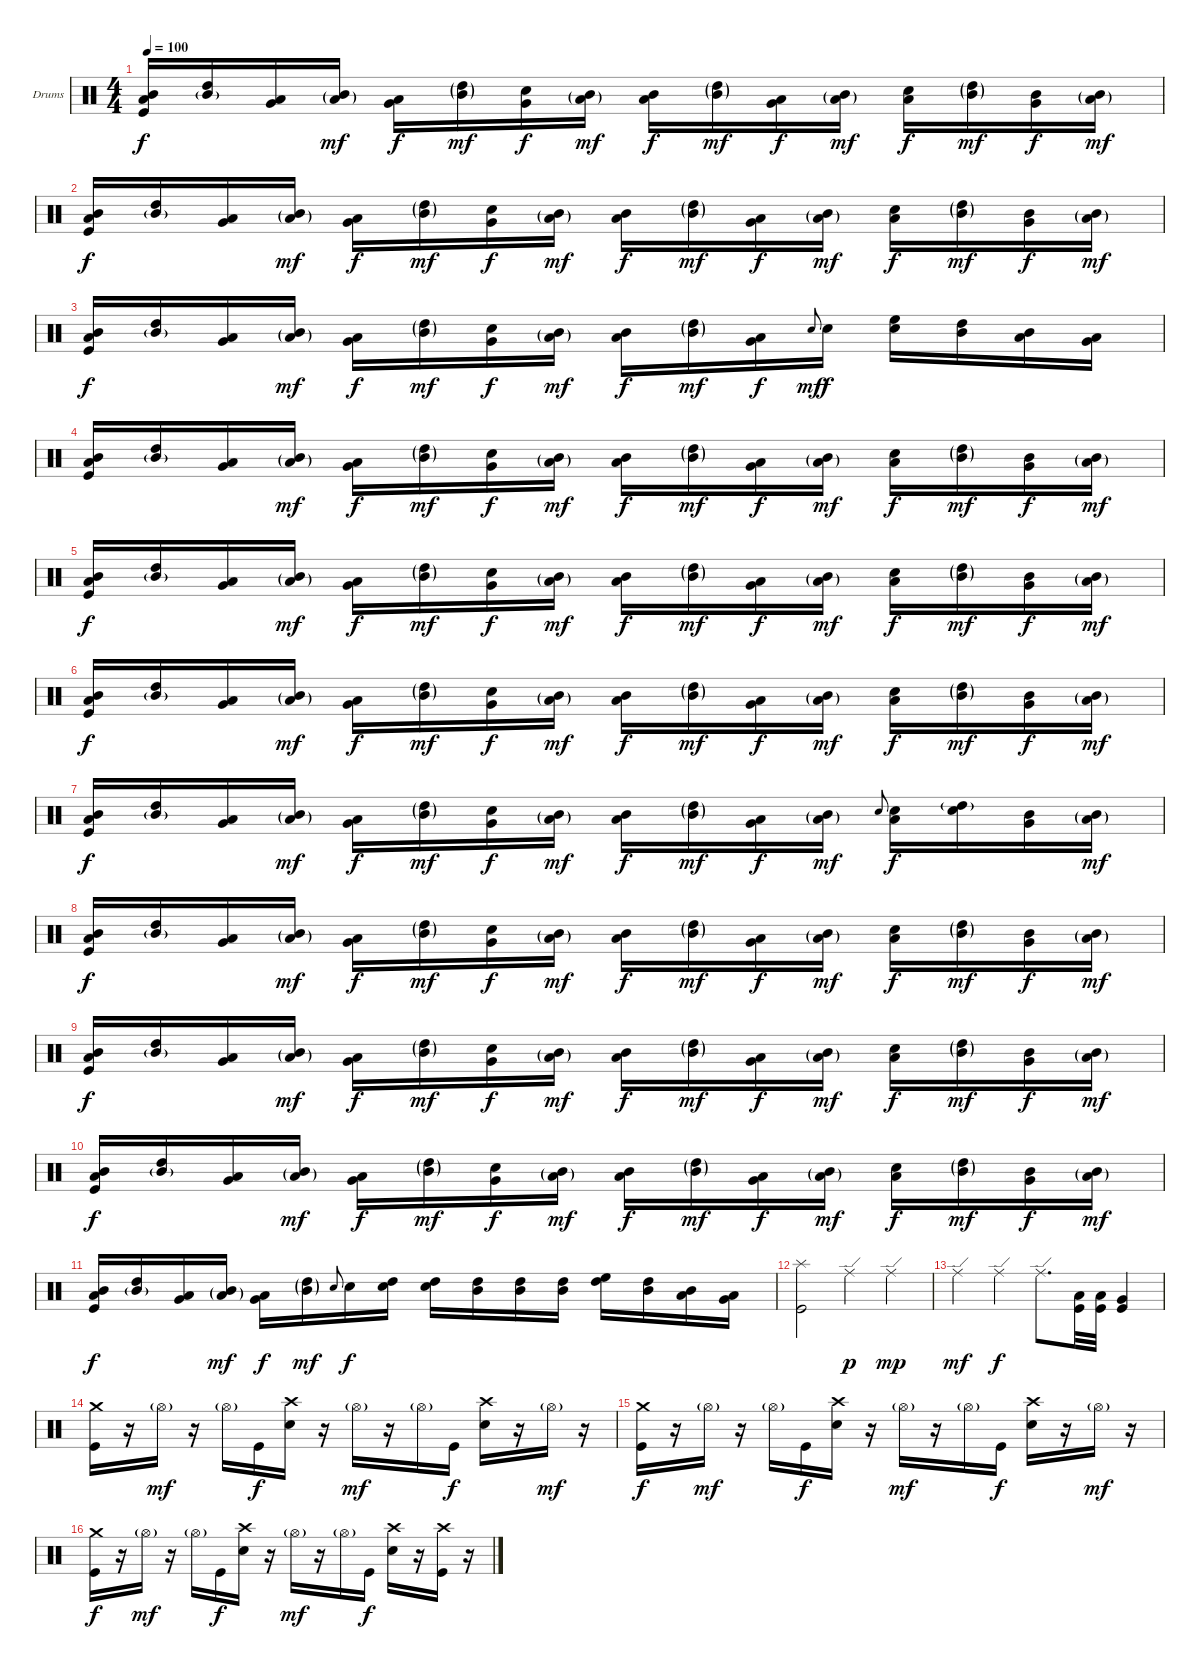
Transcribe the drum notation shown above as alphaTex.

\bracketExtendMode groupsimilarinstruments
\firstSystemTrackNameOrientation horizontal
\otherSystemsTrackNameOrientation horizontal
\track ("Drumkit (Christoph)" "Drums") {instrument percussion}
\staff {score}
\articulation defaults
\ts (4 4)
\tempo 100
\clef neutral
\ks c
("Low Tom (hit)" "Mid Tom (hit)" "Kick (hit)").16{dy f} ("Mid Tom (hit)"{g} "High Tom (hit)").16 ("Very Low Tom (hit)" "Low Tom (hit)").16 ("Low Tom (hit)"{g} "Mid Tom (hit)"{g}).16{dy mf} ("Low Tom (hit)" "Very Low Tom (hit)").16{dy f} ("Mid Tom (hit)"{g} "High Tom (hit)"{g}).16{dy mf} ("Very Low Tom (hit)" "Snare (hit) 2").16{dy f} ("Mid Tom (hit)"{g} "Low Tom (hit)"{g}).16{dy mf} ("Low Tom (hit)" "Mid Tom (hit)").16{dy f} ("High Tom (hit)"{g} "Mid Tom (hit)"{g}).16{dy mf} ("Very Low Tom (hit)" "Low Tom (hit)").16{dy f} ("Mid Tom (hit)"{g} "Low Tom (hit)"{g}).16{dy mf} ("Low Tom (hit)" "Snare (hit) 2").16{dy f} ("High Tom (hit)"{g} "Mid Tom (hit)"{g}).16{dy mf} ("Very Low Tom (hit)" "Mid Tom (hit)").16{dy f} ("Mid Tom (hit)"{g} "Low Tom (hit)"{g}).16{dy mf} |
("Low Tom (hit)" "Mid Tom (hit)" "Kick (hit)").16{dy f} ("Mid Tom (hit)"{g} "High Tom (hit)").16 ("Very Low Tom (hit)" "Low Tom (hit)").16 ("Low Tom (hit)"{g} "Mid Tom (hit)"{g}).16{dy mf} ("Low Tom (hit)" "Very Low Tom (hit)").16{dy f} ("Mid Tom (hit)"{g} "High Tom (hit)"{g}).16{dy mf} ("Very Low Tom (hit)" "Snare (hit) 2").16{dy f} ("Mid Tom (hit)"{g} "Low Tom (hit)"{g}).16{dy mf} ("Low Tom (hit)" "Mid Tom (hit)").16{dy f} ("High Tom (hit)"{g} "Mid Tom (hit)"{g}).16{dy mf} ("Very Low Tom (hit)" "Low Tom (hit)").16{dy f} ("Mid Tom (hit)"{g} "Low Tom (hit)"{g}).16{dy mf} ("Low Tom (hit)" "Snare (hit) 2").16{dy f} ("High Tom (hit)"{g} "Mid Tom (hit)"{g}).16{dy mf} ("Very Low Tom (hit)" "Mid Tom (hit)").16{dy f} ("Mid Tom (hit)"{g} "Low Tom (hit)"{g}).16{dy mf} |
("Low Tom (hit)" "Mid Tom (hit)" "Kick (hit)").16{dy f} ("Mid Tom (hit)"{g} "High Tom (hit)").16 ("Very Low Tom (hit)" "Low Tom (hit)").16 ("Low Tom (hit)"{g} "Mid Tom (hit)"{g}).16{dy mf} ("Low Tom (hit)" "Very Low Tom (hit)").16{dy f} ("Mid Tom (hit)"{g} "High Tom (hit)"{g}).16{dy mf} ("Very Low Tom (hit)" "Snare (hit) 2").16{dy f} ("Mid Tom (hit)"{g} "Low Tom (hit)"{g}).16{dy mf} ("Low Tom (hit)" "Mid Tom (hit)").16{dy f} ("High Tom (hit)"{g} "Mid Tom (hit)"{g}).16{dy mf} ("Very Low Tom (hit)" "Low Tom (hit)").16{dy f} "Snare (hit) 2".8{gr onbeat dy mf} "Snare (hit) 2".16{dy f} ("High Floor Tom (hit)" "Snare (hit) 2").16 ("High Tom (hit)" "Mid Tom (hit)").16 ("Mid Tom (hit)" "Low Tom (hit)").16 ("Low Tom (hit)" "Very Low Tom (hit)").16 |
("Low Tom (hit)" "Mid Tom (hit)" "Kick (hit)").16 ("Mid Tom (hit)"{g} "High Tom (hit)").16 ("Very Low Tom (hit)" "Low Tom (hit)").16 ("Low Tom (hit)"{g} "Mid Tom (hit)"{g}).16{dy mf} ("Low Tom (hit)" "Very Low Tom (hit)").16{dy f} ("Mid Tom (hit)"{g} "High Tom (hit)"{g}).16{dy mf} ("Very Low Tom (hit)" "Snare (hit) 2").16{dy f} ("Mid Tom (hit)"{g} "Low Tom (hit)"{g}).16{dy mf} ("Low Tom (hit)" "Mid Tom (hit)").16{dy f} ("High Tom (hit)"{g} "Mid Tom (hit)"{g}).16{dy mf} ("Very Low Tom (hit)" "Low Tom (hit)").16{dy f} ("Mid Tom (hit)"{g} "Low Tom (hit)"{g}).16{dy mf} ("Low Tom (hit)" "Snare (hit) 2").16{dy f} ("High Tom (hit)"{g} "Mid Tom (hit)"{g}).16{dy mf} ("Very Low Tom (hit)" "Mid Tom (hit)").16{dy f} ("Mid Tom (hit)"{g} "Low Tom (hit)"{g}).16{dy mf} |
("Low Tom (hit)" "Mid Tom (hit)" "Kick (hit)").16{dy f} ("Mid Tom (hit)"{g} "High Tom (hit)").16 ("Very Low Tom (hit)" "Low Tom (hit)").16 ("Low Tom (hit)"{g} "Mid Tom (hit)"{g}).16{dy mf} ("Low Tom (hit)" "Very Low Tom (hit)").16{dy f} ("Mid Tom (hit)"{g} "High Tom (hit)"{g}).16{dy mf} ("Very Low Tom (hit)" "Snare (hit) 2").16{dy f} ("Mid Tom (hit)"{g} "Low Tom (hit)"{g}).16{dy mf} ("Low Tom (hit)" "Mid Tom (hit)").16{dy f} ("High Tom (hit)"{g} "Mid Tom (hit)"{g}).16{dy mf} ("Very Low Tom (hit)" "Low Tom (hit)").16{dy f} ("Mid Tom (hit)"{g} "Low Tom (hit)"{g}).16{dy mf} ("Low Tom (hit)" "Snare (hit) 2").16{dy f} ("High Tom (hit)"{g} "Mid Tom (hit)"{g}).16{dy mf} ("Very Low Tom (hit)" "Mid Tom (hit)").16{dy f} ("Mid Tom (hit)"{g} "Low Tom (hit)"{g}).16{dy mf} |
("Low Tom (hit)" "Mid Tom (hit)" "Kick (hit)").16{dy f} ("Mid Tom (hit)"{g} "High Tom (hit)").16 ("Very Low Tom (hit)" "Low Tom (hit)").16 ("Low Tom (hit)"{g} "Mid Tom (hit)"{g}).16{dy mf} ("Low Tom (hit)" "Very Low Tom (hit)").16{dy f} ("Mid Tom (hit)"{g} "High Tom (hit)"{g}).16{dy mf} ("Very Low Tom (hit)" "Snare (hit) 2").16{dy f} ("Mid Tom (hit)"{g} "Low Tom (hit)"{g}).16{dy mf} ("Low Tom (hit)" "Mid Tom (hit)").16{dy f} ("High Tom (hit)"{g} "Mid Tom (hit)"{g}).16{dy mf} ("Very Low Tom (hit)" "Low Tom (hit)").16{dy f} ("Mid Tom (hit)"{g} "Low Tom (hit)"{g}).16{dy mf} ("Low Tom (hit)" "Snare (hit) 2").16{dy f} ("High Tom (hit)"{g} "Mid Tom (hit)"{g}).16{dy mf} ("Very Low Tom (hit)" "Mid Tom (hit)").16{dy f} ("Mid Tom (hit)"{g} "Low Tom (hit)"{g}).16{dy mf} |
("Low Tom (hit)" "Mid Tom (hit)" "Kick (hit)").16{dy f} ("Mid Tom (hit)"{g} "High Tom (hit)").16 ("Very Low Tom (hit)" "Low Tom (hit)").16 ("Low Tom (hit)"{g} "Mid Tom (hit)"{g}).16{dy mf} ("Low Tom (hit)" "Very Low Tom (hit)").16{dy f} ("Mid Tom (hit)"{g} "High Tom (hit)"{g}).16{dy mf} ("Very Low Tom (hit)" "Snare (hit) 2").16{dy f} ("Mid Tom (hit)"{g} "Low Tom (hit)"{g}).16{dy mf} ("Low Tom (hit)" "Mid Tom (hit)").16{dy f} ("High Tom (hit)"{g} "Mid Tom (hit)"{g}).16{dy mf} ("Very Low Tom (hit)" "Low Tom (hit)").16{dy f} ("Mid Tom (hit)"{g} "Low Tom (hit)"{g}).16{dy mf} "Snare (hit) 2".8{gr onbeat} ("Low Tom (hit)" "Snare (hit) 2").16{dy f} ("High Tom (hit)"{g} "Snare (hit) 2").16 ("Very Low Tom (hit)" "Mid Tom (hit)").16 ("Mid Tom (hit)"{g} "Low Tom (hit)"{g}).16{dy mf} |
("Low Tom (hit)" "Mid Tom (hit)" "Kick (hit)").16{dy f} ("Mid Tom (hit)"{g} "High Tom (hit)").16 ("Very Low Tom (hit)" "Low Tom (hit)").16 ("Low Tom (hit)"{g} "Mid Tom (hit)"{g}).16{dy mf} ("Low Tom (hit)" "Very Low Tom (hit)").16{dy f} ("Mid Tom (hit)"{g} "High Tom (hit)"{g}).16{dy mf} ("Very Low Tom (hit)" "Snare (hit) 2").16{dy f} ("Mid Tom (hit)"{g} "Low Tom (hit)"{g}).16{dy mf} ("Low Tom (hit)" "Mid Tom (hit)").16{dy f} ("High Tom (hit)"{g} "Mid Tom (hit)"{g}).16{dy mf} ("Very Low Tom (hit)" "Low Tom (hit)").16{dy f} ("Mid Tom (hit)"{g} "Low Tom (hit)"{g}).16{dy mf} ("Low Tom (hit)" "Snare (hit) 2").16{dy f} ("High Tom (hit)"{g} "Mid Tom (hit)"{g}).16{dy mf} ("Very Low Tom (hit)" "Mid Tom (hit)").16{dy f} ("Mid Tom (hit)"{g} "Low Tom (hit)"{g}).16{dy mf} |
("Low Tom (hit)" "Mid Tom (hit)" "Kick (hit)").16{dy f} ("Mid Tom (hit)"{g} "High Tom (hit)").16 ("Very Low Tom (hit)" "Low Tom (hit)").16 ("Low Tom (hit)"{g} "Mid Tom (hit)"{g}).16{dy mf} ("Low Tom (hit)" "Very Low Tom (hit)").16{dy f} ("Mid Tom (hit)"{g} "High Tom (hit)"{g}).16{dy mf} ("Very Low Tom (hit)" "Snare (hit) 2").16{dy f} ("Mid Tom (hit)"{g} "Low Tom (hit)"{g}).16{dy mf} ("Low Tom (hit)" "Mid Tom (hit)").16{dy f} ("High Tom (hit)"{g} "Mid Tom (hit)"{g}).16{dy mf} ("Very Low Tom (hit)" "Low Tom (hit)").16{dy f} ("Mid Tom (hit)"{g} "Low Tom (hit)"{g}).16{dy mf} ("Low Tom (hit)" "Snare (hit) 2").16{dy f} ("High Tom (hit)"{g} "Mid Tom (hit)"{g}).16{dy mf} ("Very Low Tom (hit)" "Mid Tom (hit)").16{dy f} ("Mid Tom (hit)"{g} "Low Tom (hit)"{g}).16{dy mf} |
("Low Tom (hit)" "Mid Tom (hit)" "Kick (hit)").16{dy f} ("Mid Tom (hit)"{g} "High Tom (hit)").16 ("Very Low Tom (hit)" "Low Tom (hit)").16 ("Low Tom (hit)"{g} "Mid Tom (hit)"{g}).16{dy mf} ("Low Tom (hit)" "Very Low Tom (hit)").16{dy f} ("Mid Tom (hit)"{g} "High Tom (hit)"{g}).16{dy mf} ("Very Low Tom (hit)" "Snare (hit) 2").16{dy f} ("Mid Tom (hit)"{g} "Low Tom (hit)"{g}).16{dy mf} ("Low Tom (hit)" "Mid Tom (hit)").16{dy f} ("High Tom (hit)"{g} "Mid Tom (hit)"{g}).16{dy mf} ("Very Low Tom (hit)" "Low Tom (hit)").16{dy f} ("Mid Tom (hit)"{g} "Low Tom (hit)"{g}).16{dy mf} ("Low Tom (hit)" "Snare (hit) 2").16{dy f} ("High Tom (hit)"{g} "Mid Tom (hit)"{g}).16{dy mf} ("Very Low Tom (hit)" "Mid Tom (hit)").16{dy f} ("Mid Tom (hit)"{g} "Low Tom (hit)"{g}).16{dy mf} |
("Low Tom (hit)" "Mid Tom (hit)" "Kick (hit)").16{dy f} ("Mid Tom (hit)"{g} "High Tom (hit)").16 ("Very Low Tom (hit)" "Low Tom (hit)").16 ("Low Tom (hit)"{g} "Mid Tom (hit)"{g}).16{dy mf} ("Low Tom (hit)" "Very Low Tom (hit)").16{dy f} ("Mid Tom (hit)"{g} "High Tom (hit)"{g}).16{dy mf} "Snare (hit) 2".8{gr onbeat} "Snare (hit) 2".16{dy f} ("High Tom (hit)" "Snare (hit) 2").16 ("High Tom (hit)" "Snare (hit) 2").16 ("High Tom (hit)" "Mid Tom (hit)").16 ("High Tom (hit)" "Mid Tom (hit)").16 ("High Tom (hit)" "Mid Tom (hit)").16 ("High Floor Tom (hit)" "High Tom (hit)").16 ("High Tom (hit)" "Mid Tom (hit)").16 ("Mid Tom (hit)" "Low Tom (hit)").16 ("Low Tom (hit)" "Very Low Tom (hit)").16 |
("Splash (hit)" "Kick (hit)").2 "Ride (edge)".4{dy p} "Ride (edge)".4{dy mp} |
"Ride (edge)".4{dy mf} "Ride (edge)".4{dy f} "Ride (edge)".8{d} ("Low Tom (hit)" "Kick (hit)").32 ("Low Tom (hit)" "Kick (hit)").32 ("Very Low Tom (hit)" "Kick (hit)").4 |
("Crash medium (hit)" "Kick (hit)").16 r.16 "Hi-Hat (open)"{g}.16{dy mf} r.16 "Hi-Hat (open)"{g}.16 "Kick (hit)".16{dy f} ("Crash high (hit)" "Snare (hit) 2").16 r.16 "Hi-Hat (open)"{g}.16{dy mf} r.16 "Hi-Hat (open)"{g}.16 "Kick (hit)".16{dy f} ("Crash high (hit)" "Snare (hit) 2").16 r.16 "Hi-Hat (open)"{g}.16{dy mf} r.16 |
("Crash medium (hit)" "Kick (hit)").16{dy f} r.16 "Hi-Hat (open)"{g}.16{dy mf} r.16 "Hi-Hat (open)"{g}.16 "Kick (hit)".16{dy f} ("Crash high (hit)" "Snare (hit) 2").16 r.16 "Hi-Hat (open)"{g}.16{dy mf} r.16 "Hi-Hat (open)"{g}.16 "Kick (hit)".16{dy f} ("Crash high (hit)" "Snare (hit) 2").16 r.16 "Hi-Hat (open)"{g}.16{dy mf} r.16 |
("Crash medium (hit)" "Kick (hit)").16{dy f} r.16 "Hi-Hat (open)"{g}.16{dy mf} r.16 "Hi-Hat (open)"{g}.16 "Kick (hit)".16{dy f} ("Crash high (hit)" "Snare (hit) 2").16 r.16 "Hi-Hat (open)"{g}.16{dy mf} r.16 "Hi-Hat (open)"{g}.16 "Kick (hit)".16{dy f} ("Crash high (hit)" "Snare (hit) 2").16 r.16 ("Crash high (hit)" "Kick (hit)").16 r.16
